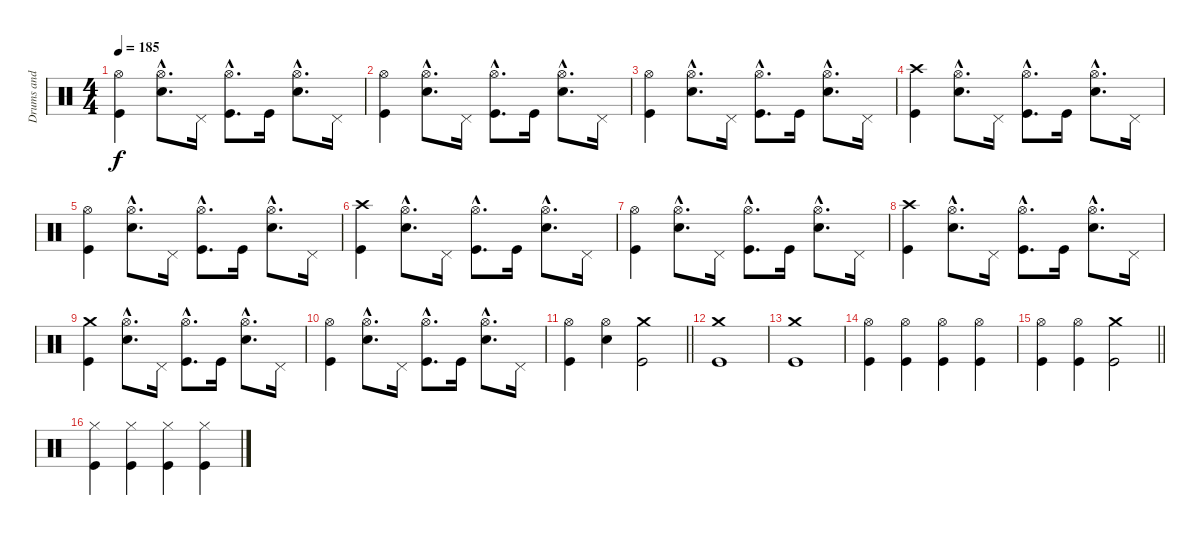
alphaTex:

\track ("Drums and percussion" "Drums and ") {instrument percussion}
\staff {score}
\articulation defaults
\ts (4 4)
\tempo 185
\clef neutral
\ks c
("Hi-Hat (open)" "Kick (hit)").4{dy f} ("Hi-Hat (open)"{hac} "Snare (hit) 2"{hac}).8{d} "Pedal Hi-Hat (hit)".16 ("Hi-Hat (open)"{hac} "Kick (hit)"{hac}).8{d} "Kick (hit)".16 ("Hi-Hat (open)"{hac} "Snare (hit) 2"{hac}).8{d} "Pedal Hi-Hat (hit)".16 |
("Hi-Hat (open)" "Kick (hit)").4 ("Hi-Hat (open)"{hac} "Snare (hit) 2"{hac}).8{d} "Pedal Hi-Hat (hit)".16 ("Hi-Hat (open)"{hac} "Kick (hit)"{hac}).8{d} "Kick (hit)".16 ("Hi-Hat (open)"{hac} "Snare (hit) 2"{hac}).8{d} "Pedal Hi-Hat (hit)".16 |
("Hi-Hat (open)" "Kick (hit)").4 ("Hi-Hat (open)"{hac} "Snare (hit) 2"{hac}).8{d} "Pedal Hi-Hat (hit)".16 ("Hi-Hat (open)"{hac} "Kick (hit)"{hac}).8{d} "Kick (hit)".16 ("Hi-Hat (open)"{hac} "Snare (hit) 2"{hac}).8{d} "Pedal Hi-Hat (hit)".16 |
("Crash high (hit)" "Kick (hit)").4 ("Hi-Hat (open)"{hac} "Snare (hit) 2"{hac}).8{d} "Pedal Hi-Hat (hit)".16 ("Hi-Hat (open)"{hac} "Kick (hit)"{hac}).8{d} "Kick (hit)".16 ("Hi-Hat (open)"{hac} "Snare (hit) 2"{hac}).8{d} "Pedal Hi-Hat (hit)".16 |
("Hi-Hat (open)" "Kick (hit)").4 ("Hi-Hat (open)"{hac} "Snare (hit) 2"{hac}).8{d} "Pedal Hi-Hat (hit)".16 ("Hi-Hat (open)"{hac} "Kick (hit)"{hac}).8{d} "Kick (hit)".16 ("Hi-Hat (open)"{hac} "Snare (hit) 2"{hac}).8{d} "Pedal Hi-Hat (hit)".16 |
("Crash high (hit)" "Kick (hit)").4 ("Hi-Hat (open)"{hac} "Snare (hit) 2"{hac}).8{d} "Pedal Hi-Hat (hit)".16 ("Hi-Hat (open)"{hac} "Kick (hit)"{hac}).8{d} "Kick (hit)".16 ("Hi-Hat (open)"{hac} "Snare (hit) 2"{hac}).8{d} "Pedal Hi-Hat (hit)".16 |
("Hi-Hat (open)" "Kick (hit)").4 ("Hi-Hat (open)"{hac} "Snare (hit) 2"{hac}).8{d} "Pedal Hi-Hat (hit)".16 ("Hi-Hat (open)"{hac} "Kick (hit)"{hac}).8{d} "Kick (hit)".16 ("Hi-Hat (open)"{hac} "Snare (hit) 2"{hac}).8{d} "Pedal Hi-Hat (hit)".16 |
("Crash high (hit)" "Kick (hit)").4 ("Hi-Hat (open)"{hac} "Snare (hit) 2"{hac}).8{d} "Pedal Hi-Hat (hit)".16 ("Hi-Hat (open)"{hac} "Kick (hit)"{hac}).8{d} "Kick (hit)".16 ("Hi-Hat (open)"{hac} "Snare (hit) 2"{hac}).8{d} "Pedal Hi-Hat (hit)".16 |
("Crash medium (hit)" "Kick (hit)").4 ("Hi-Hat (open)"{hac} "Snare (hit) 2"{hac}).8{d} "Pedal Hi-Hat (hit)".16 ("Hi-Hat (open)"{hac} "Kick (hit)"{hac}).8{d} "Kick (hit)".16 ("Hi-Hat (open)"{hac} "Snare (hit) 2"{hac}).8{d} "Pedal Hi-Hat (hit)".16 |
("Hi-Hat (open)" "Kick (hit)").4 ("Hi-Hat (open)"{hac} "Snare (hit) 2"{hac}).8{d} "Pedal Hi-Hat (hit)".16 ("Hi-Hat (open)"{hac} "Kick (hit)"{hac}).8{d} "Kick (hit)".16 ("Hi-Hat (open)"{hac} "Snare (hit) 2"{hac}).8{d} "Pedal Hi-Hat (hit)".16 |
\barLineRight lightlight
("Hi-Hat (open)" "Kick (hit)").4 ("Hi-Hat (open)" "Snare (hit) 2").4 ("Crash medium (hit)" "Kick (hit)").2 |
("Crash medium (hit)" "Kick (hit)").1 |
("Crash medium (hit)" "Kick (hit)").1 |
("Hi-Hat (open)" "Kick (hit)").4 ("Hi-Hat (open)" "Kick (hit)").4 ("Hi-Hat (open)" "Kick (hit)").4 ("Hi-Hat (open)" "Kick (hit)").4 |
\barLineRight lightlight
("Hi-Hat (open)" "Kick (hit)").4 ("Hi-Hat (open)" "Kick (hit)").4 ("Crash medium (hit)" "Kick (hit)").2 |
("Hi-Hat (closed)" "Kick (hit)").4 ("Hi-Hat (closed)" "Kick (hit)").4 ("Hi-Hat (closed)" "Kick (hit)").4 ("Hi-Hat (closed)" "Kick (hit)").4
